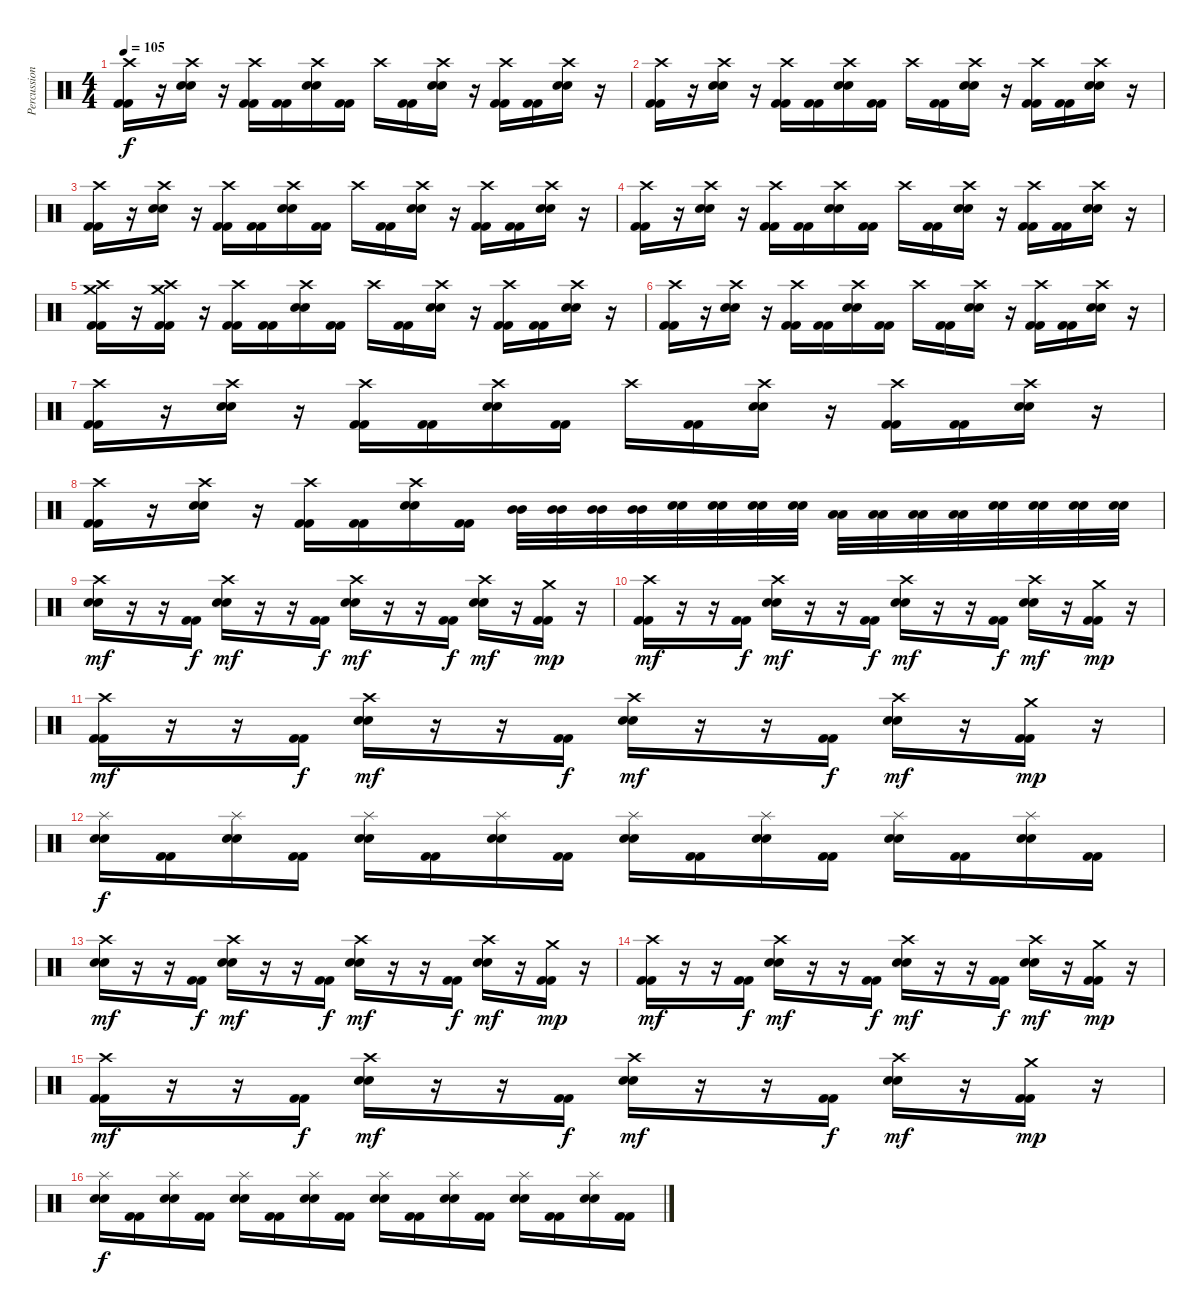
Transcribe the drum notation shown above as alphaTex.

\track ("Percussions" "Percussion") {instrument percussion}
\staff {score}
\articulation defaults
\ts (4 4)
\tempo 105
\clef neutral
\ks c
("Crash high (hit)" "Kick (hit) 2" "Kick (hit) 2").16{dy f} r.16 ("Crash high (hit)" "Electric Snare (hit)" "Electric Snare (hit)").16 r.16 ("Crash high (hit)" "Kick (hit) 2" "Kick (hit) 2").16 ("Kick (hit) 2" "Kick (hit) 2").16 ("Crash high (hit)" "Electric Snare (hit)" "Electric Snare (hit)").16 ("Kick (hit) 2" "Kick (hit) 2").16 "Crash high (hit)".16 ("Kick (hit) 2" "Kick (hit) 2").16 ("Crash high (hit)" "Electric Snare (hit)" "Electric Snare (hit)").16 r.16 ("Crash high (hit)" "Kick (hit) 2" "Kick (hit) 2").16 ("Kick (hit) 2" "Kick (hit) 2").16 ("Crash high (hit)" "Electric Snare (hit)" "Electric Snare (hit)").16 r.16 |
("Crash high (hit)" "Kick (hit) 2" "Kick (hit) 2").16 r.16 ("Crash high (hit)" "Electric Snare (hit)" "Electric Snare (hit)").16 r.16 ("Crash high (hit)" "Kick (hit) 2" "Kick (hit) 2").16 ("Kick (hit) 2" "Kick (hit) 2").16 ("Crash high (hit)" "Electric Snare (hit)" "Electric Snare (hit)").16 ("Kick (hit) 2" "Kick (hit) 2").16 "Crash high (hit)".16 ("Kick (hit) 2" "Kick (hit) 2").16 ("Crash high (hit)" "Electric Snare (hit)" "Electric Snare (hit)").16 r.16 ("Crash high (hit)" "Kick (hit) 2" "Kick (hit) 2").16 ("Kick (hit) 2" "Kick (hit) 2").16 ("Crash high (hit)" "Electric Snare (hit)" "Electric Snare (hit)").16 r.16 |
("Crash high (hit)" "Kick (hit) 2" "Kick (hit) 2").16 r.16 ("Crash high (hit)" "Electric Snare (hit)" "Electric Snare (hit)").16 r.16 ("Crash high (hit)" "Kick (hit) 2" "Kick (hit) 2").16 ("Kick (hit) 2" "Kick (hit) 2").16 ("Crash high (hit)" "Electric Snare (hit)" "Electric Snare (hit)").16 ("Kick (hit) 2" "Kick (hit) 2").16 "Crash high (hit)".16 ("Kick (hit) 2" "Kick (hit) 2").16 ("Crash high (hit)" "Electric Snare (hit)" "Electric Snare (hit)").16 r.16 ("Crash high (hit)" "Kick (hit) 2" "Kick (hit) 2").16 ("Kick (hit) 2" "Kick (hit) 2").16 ("Crash high (hit)" "Electric Snare (hit)" "Electric Snare (hit)").16 r.16 |
("Crash high (hit)" "Kick (hit) 2" "Kick (hit) 2").16 r.16 ("Crash high (hit)" "Electric Snare (hit)" "Electric Snare (hit)").16 r.16 ("Crash high (hit)" "Kick (hit) 2" "Kick (hit) 2").16 ("Kick (hit) 2" "Kick (hit) 2").16 ("Crash high (hit)" "Electric Snare (hit)" "Electric Snare (hit)").16 ("Kick (hit) 2" "Kick (hit) 2").16 "Crash high (hit)".16 ("Kick (hit) 2" "Kick (hit) 2").16 ("Crash high (hit)" "Electric Snare (hit)" "Electric Snare (hit)").16 r.16 ("Crash high (hit)" "Kick (hit) 2" "Kick (hit) 2").16 ("Kick (hit) 2" "Kick (hit) 2").16 ("Crash high (hit)" "Electric Snare (hit)" "Electric Snare (hit)").16 r.16 |
("Crash high (hit)" "Crash medium (hit)" "Kick (hit) 2" "Kick (hit) 2").16 r.16 ("Crash high (hit)" "Crash medium (hit)" "Kick (hit) 2" "Kick (hit) 2").16 r.16 ("Crash high (hit)" "Kick (hit) 2" "Kick (hit) 2").16 ("Kick (hit) 2" "Kick (hit) 2").16 ("Crash high (hit)" "Electric Snare (hit)" "Electric Snare (hit)").16 ("Kick (hit) 2" "Kick (hit) 2").16 "Crash high (hit)".16 ("Kick (hit) 2" "Kick (hit) 2").16 ("Crash high (hit)" "Electric Snare (hit)" "Electric Snare (hit)").16 r.16 ("Crash high (hit)" "Kick (hit) 2" "Kick (hit) 2").16 ("Kick (hit) 2" "Kick (hit) 2").16 ("Crash high (hit)" "Electric Snare (hit)" "Electric Snare (hit)").16 r.16 |
("Crash high (hit)" "Kick (hit) 2" "Kick (hit) 2").16 r.16 ("Crash high (hit)" "Electric Snare (hit)" "Electric Snare (hit)").16 r.16 ("Crash high (hit)" "Kick (hit) 2" "Kick (hit) 2").16 ("Kick (hit) 2" "Kick (hit) 2").16 ("Crash high (hit)" "Electric Snare (hit)" "Electric Snare (hit)").16 ("Kick (hit) 2" "Kick (hit) 2").16 "Crash high (hit)".16 ("Kick (hit) 2" "Kick (hit) 2").16 ("Crash high (hit)" "Electric Snare (hit)" "Electric Snare (hit)").16 r.16 ("Crash high (hit)" "Kick (hit) 2" "Kick (hit) 2").16 ("Kick (hit) 2" "Kick (hit) 2").16 ("Crash high (hit)" "Electric Snare (hit)" "Electric Snare (hit)").16 r.16 |
("Crash high (hit)" "Kick (hit) 2" "Kick (hit) 2").16 r.16 ("Crash high (hit)" "Electric Snare (hit)" "Electric Snare (hit)").16 r.16 ("Crash high (hit)" "Kick (hit) 2" "Kick (hit) 2").16 ("Kick (hit) 2" "Kick (hit) 2").16 ("Crash high (hit)" "Electric Snare (hit)" "Electric Snare (hit)").16 ("Kick (hit) 2" "Kick (hit) 2").16 "Crash high (hit)".16 ("Kick (hit) 2" "Kick (hit) 2").16 ("Crash high (hit)" "Electric Snare (hit)" "Electric Snare (hit)").16 r.16 ("Crash high (hit)" "Kick (hit) 2" "Kick (hit) 2").16 ("Kick (hit) 2" "Kick (hit) 2").16 ("Crash high (hit)" "Electric Snare (hit)" "Electric Snare (hit)").16 r.16 |
("Crash high (hit)" "Kick (hit) 2" "Kick (hit) 2").16 r.16 ("Crash high (hit)" "Electric Snare (hit)" "Electric Snare (hit)").16 r.16 ("Crash high (hit)" "Kick (hit) 2" "Kick (hit) 2").16 ("Kick (hit) 2" "Kick (hit) 2").16 ("Crash high (hit)" "Electric Snare (hit)" "Electric Snare (hit)").16 ("Kick (hit) 2" "Kick (hit) 2").16 ("Mid Tom (hit)" "Mid Tom (hit)").32 ("Mid Tom (hit)" "Mid Tom (hit)").32 ("Mid Tom (hit)" "Mid Tom (hit)").32 ("Mid Tom (hit)" "Mid Tom (hit)").32 ("Electric Snare (hit)" "Electric Snare (hit)").32 ("Electric Snare (hit)" "Electric Snare (hit)").32 ("Electric Snare (hit)" "Electric Snare (hit)").32 ("Electric Snare (hit)" "Electric Snare (hit)").32 ("Low Tom (hit)" "Low Tom (hit)").32 ("Low Tom (hit)" "Low Tom (hit)").32 ("Low Tom (hit)" "Low Tom (hit)").32 ("Low Tom (hit)" "Low Tom (hit)").32 ("Electric Snare (hit)" "Electric Snare (hit)").32 ("Electric Snare (hit)" "Electric Snare (hit)").32 ("Electric Snare (hit)" "Electric Snare (hit)").32 ("Electric Snare (hit)" "Electric Snare (hit)").32 |
("Crash high (hit)" "Electric Snare (hit)" "Electric Snare (hit)").16{dy mf} r.16 r.16 ("Kick (hit) 2" "Kick (hit) 2").16{dy f} ("Crash high (hit)" "Electric Snare (hit)" "Electric Snare (hit)").16{dy mf} r.16 r.16 ("Kick (hit) 2" "Kick (hit) 2").16{dy f} ("Crash high (hit)" "Electric Snare (hit)" "Electric Snare (hit)").16{dy mf} r.16 r.16 ("Kick (hit) 2" "Kick (hit) 2").16{dy f} ("Crash high (hit)" "Electric Snare (hit)" "Electric Snare (hit)").16{dy mf} r.16 ("Crash medium (hit)" "Kick (hit) 2" "Kick (hit) 2").16{dy mp} r.16 |
("Crash high (hit)" "Kick (hit) 2" "Kick (hit) 2").16{dy mf} r.16 r.16 ("Kick (hit) 2" "Kick (hit) 2").16{dy f} ("Crash high (hit)" "Electric Snare (hit)" "Electric Snare (hit)").16{dy mf} r.16 r.16 ("Kick (hit) 2" "Kick (hit) 2").16{dy f} ("Crash high (hit)" "Electric Snare (hit)" "Electric Snare (hit)").16{dy mf} r.16 r.16 ("Kick (hit) 2" "Kick (hit) 2").16{dy f} ("Crash high (hit)" "Electric Snare (hit)" "Electric Snare (hit)").16{dy mf} r.16 ("Crash medium (hit)" "Kick (hit) 2" "Kick (hit) 2").16{dy mp} r.16 |
("Crash high (hit)" "Kick (hit) 2" "Kick (hit) 2").16{dy mf} r.16 r.16 ("Kick (hit) 2" "Kick (hit) 2").16{dy f} ("Crash high (hit)" "Electric Snare (hit)" "Electric Snare (hit)").16{dy mf} r.16 r.16 ("Kick (hit) 2" "Kick (hit) 2").16{dy f} ("Crash high (hit)" "Electric Snare (hit)" "Electric Snare (hit)").16{dy mf} r.16 r.16 ("Kick (hit) 2" "Kick (hit) 2").16{dy f} ("Crash high (hit)" "Electric Snare (hit)" "Electric Snare (hit)").16{dy mf} r.16 ("Crash medium (hit)" "Kick (hit) 2" "Kick (hit) 2").16{dy mp} r.16 |
("Splash (hit)" "Electric Snare (hit)" "Electric Snare (hit)").16{dy f} ("Kick (hit) 2" "Kick (hit) 2").16 ("Splash (hit)" "Electric Snare (hit)" "Electric Snare (hit)").16 ("Kick (hit) 2" "Kick (hit) 2").16 ("Splash (hit)" "Electric Snare (hit)" "Electric Snare (hit)").16 ("Kick (hit) 2" "Kick (hit) 2").16 ("Splash (hit)" "Electric Snare (hit)" "Electric Snare (hit)").16 ("Kick (hit) 2" "Kick (hit) 2").16 ("Splash (hit)" "Electric Snare (hit)" "Electric Snare (hit)").16 ("Kick (hit) 2" "Kick (hit) 2").16 ("Splash (hit)" "Electric Snare (hit)" "Electric Snare (hit)").16 ("Kick (hit) 2" "Kick (hit) 2").16 ("Splash (hit)" "Electric Snare (hit)" "Electric Snare (hit)").16 ("Kick (hit) 2" "Kick (hit) 2").16 ("Splash (hit)" "Electric Snare (hit)" "Electric Snare (hit)").16 ("Kick (hit) 2" "Kick (hit) 2").16 |
("Crash high (hit)" "Electric Snare (hit)" "Electric Snare (hit)").16{dy mf} r.16 r.16 ("Kick (hit) 2" "Kick (hit) 2").16{dy f} ("Crash high (hit)" "Electric Snare (hit)" "Electric Snare (hit)").16{dy mf} r.16 r.16 ("Kick (hit) 2" "Kick (hit) 2").16{dy f} ("Crash high (hit)" "Electric Snare (hit)" "Electric Snare (hit)").16{dy mf} r.16 r.16 ("Kick (hit) 2" "Kick (hit) 2").16{dy f} ("Crash high (hit)" "Electric Snare (hit)" "Electric Snare (hit)").16{dy mf} r.16 ("Crash medium (hit)" "Kick (hit) 2" "Kick (hit) 2").16{dy mp} r.16 |
("Crash high (hit)" "Kick (hit) 2" "Kick (hit) 2").16{dy mf} r.16 r.16 ("Kick (hit) 2" "Kick (hit) 2").16{dy f} ("Crash high (hit)" "Electric Snare (hit)" "Electric Snare (hit)").16{dy mf} r.16 r.16 ("Kick (hit) 2" "Kick (hit) 2").16{dy f} ("Crash high (hit)" "Electric Snare (hit)" "Electric Snare (hit)").16{dy mf} r.16 r.16 ("Kick (hit) 2" "Kick (hit) 2").16{dy f} ("Crash high (hit)" "Electric Snare (hit)" "Electric Snare (hit)").16{dy mf} r.16 ("Crash medium (hit)" "Kick (hit) 2" "Kick (hit) 2").16{dy mp} r.16 |
("Crash high (hit)" "Kick (hit) 2" "Kick (hit) 2").16{dy mf} r.16 r.16 ("Kick (hit) 2" "Kick (hit) 2").16{dy f} ("Crash high (hit)" "Electric Snare (hit)" "Electric Snare (hit)").16{dy mf} r.16 r.16 ("Kick (hit) 2" "Kick (hit) 2").16{dy f} ("Crash high (hit)" "Electric Snare (hit)" "Electric Snare (hit)").16{dy mf} r.16 r.16 ("Kick (hit) 2" "Kick (hit) 2").16{dy f} ("Crash high (hit)" "Electric Snare (hit)" "Electric Snare (hit)").16{dy mf} r.16 ("Crash medium (hit)" "Kick (hit) 2" "Kick (hit) 2").16{dy mp} r.16 |
("Splash (hit)" "Electric Snare (hit)" "Electric Snare (hit)").16{dy f} ("Kick (hit) 2" "Kick (hit) 2").16 ("Splash (hit)" "Electric Snare (hit)" "Electric Snare (hit)").16 ("Kick (hit) 2" "Kick (hit) 2").16 ("Splash (hit)" "Electric Snare (hit)" "Electric Snare (hit)").16 ("Kick (hit) 2" "Kick (hit) 2").16 ("Splash (hit)" "Electric Snare (hit)" "Electric Snare (hit)").16 ("Kick (hit) 2" "Kick (hit) 2").16 ("Splash (hit)" "Electric Snare (hit)" "Electric Snare (hit)").16 ("Kick (hit) 2" "Kick (hit) 2").16 ("Splash (hit)" "Electric Snare (hit)" "Electric Snare (hit)").16 ("Kick (hit) 2" "Kick (hit) 2").16 ("Splash (hit)" "Electric Snare (hit)" "Electric Snare (hit)").16 ("Kick (hit) 2" "Kick (hit) 2").16 ("Splash (hit)" "Electric Snare (hit)" "Electric Snare (hit)").16 ("Kick (hit) 2" "Kick (hit) 2").16
